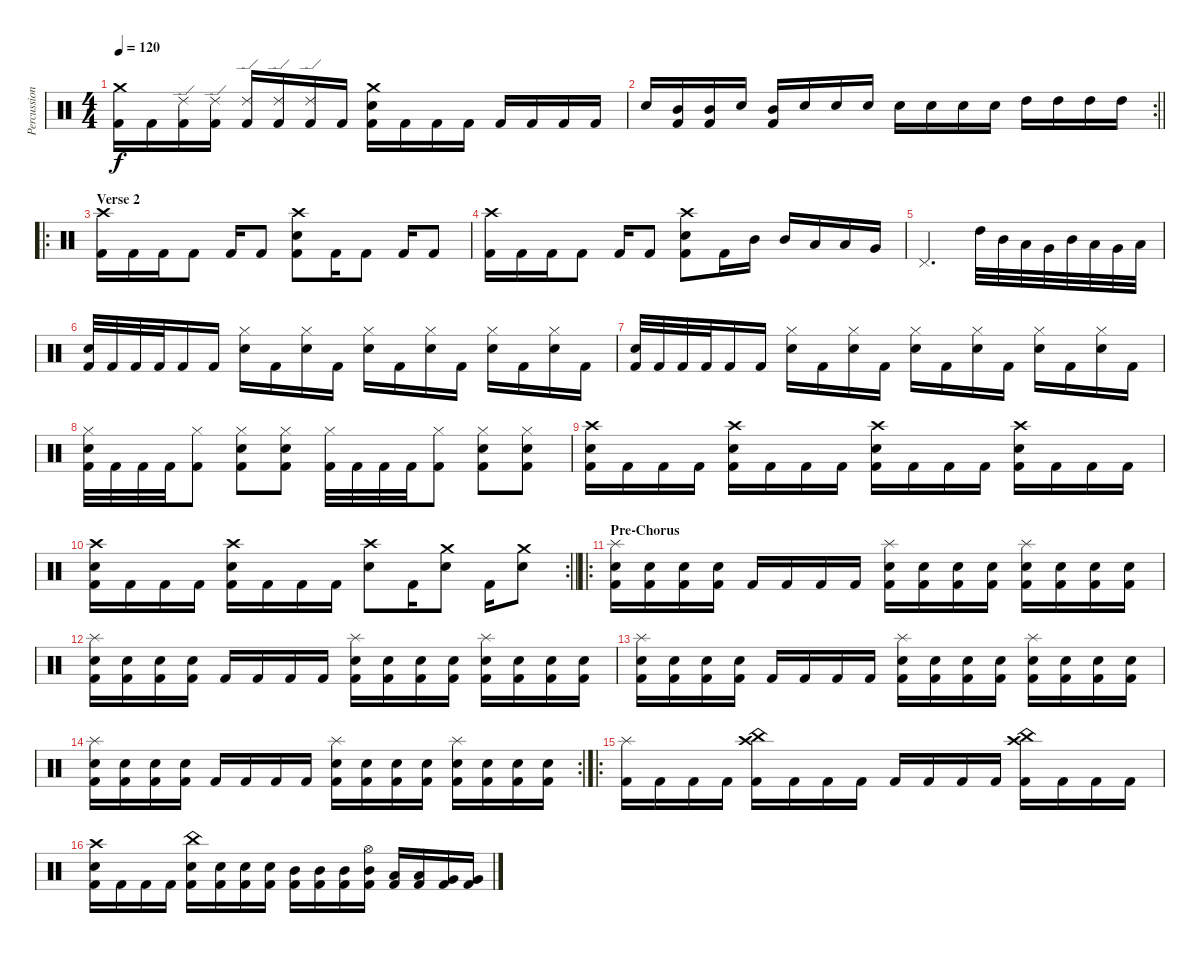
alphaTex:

\track ("Percussions" "Percussion") {instrument percussion}
\staff {score}
\articulation defaults
\ts (4 4)
\tempo 120
\clef neutral
\ks c
("Crash medium (hit)" "Kick (hit) 2").16{dy f} "Kick (hit) 2".16 ("Ride (edge) 2" "Kick (hit) 2").16 ("Ride (edge) 2" "Kick (hit) 2").16 ("Ride (edge) 2" "Kick (hit) 2").16 ("Ride (edge) 2" "Kick (hit) 2").16 ("Ride (edge) 2" "Kick (hit) 2").16 "Kick (hit) 2".16 ("Crash medium (hit)" "Electric Snare (hit)" "Kick (hit) 2").16 "Kick (hit) 2".16 "Kick (hit) 2".16 "Kick (hit) 2".16 "Kick (hit) 2".16 "Kick (hit) 2".16 "Kick (hit) 2".16 "Kick (hit) 2".16 |
\rc 2
\barLineRight lightlight "Electric Snare (hit)".16
("Mid Tom (hit)" "Kick (hit) 2").16 ("Mid Tom (hit)" "Kick (hit) 2").16 "Electric Snare (hit)".16 ("Mid Tom (hit)" "Kick (hit) 2").16 "Electric Snare (hit)".16 "Electric Snare (hit)".16 "Electric Snare (hit)".16 "Electric Snare (hit)".16 "Electric Snare (hit)".16 "Electric Snare (hit)".16 "Electric Snare (hit)".16 "High Tom (hit)".16 "High Tom (hit)".16 "High Tom (hit)".16 "High Tom (hit)".16 |
\ro
\section ("" "Verse 2")
("Crash high (hit)" "Kick (hit) 2").16 "Kick (hit) 2".16 "Kick (hit) 2".16 "Kick (hit) 2".8 "Kick (hit) 2".16 "Kick (hit) 2".8 ("Crash high (hit)" "Electric Snare (hit)" "Kick (hit) 2").8 "Kick (hit) 2".16 "Kick (hit) 2".8 "Kick (hit) 2".16 "Kick (hit) 2".8 |
("Crash high (hit)" "Kick (hit) 2").16 "Kick (hit) 2".16 "Kick (hit) 2".16 "Kick (hit) 2".8 "Kick (hit) 2".16 "Kick (hit) 2".8 ("Crash high (hit)" "Electric Snare (hit)" "Kick (hit) 2").8 "Kick (hit) 2".16 "Mid Tom (hit)".16 "Mid Tom (hit)".16 "Low Tom (hit)".16 "Low Tom (hit)".16 "Very Low Tom (hit)".16 |
"Pedal Hi-Hat (hit)".2{d} "High Tom (hit)".32 "Mid Tom (hit)".32 "Low Tom (hit)".32 "Very Low Tom (hit)".32 "Mid Tom (hit)".32 "Low Tom (hit)".32 "Very Low Tom (hit)".32 "Low Floor Tom (hit)".32 |
("Electric Snare (hit)" "Kick (hit) 2").32 "Kick (hit) 2".32 "Kick (hit) 2".32 "Kick (hit) 2".32 "Kick (hit) 2".16 "Kick (hit) 2".16 ("Hi-Hat (closed)" "Electric Snare (hit)").16 "Kick (hit) 2".16 ("Hi-Hat (closed)" "Electric Snare (hit)").16 "Kick (hit) 2".16 ("Hi-Hat (closed)" "Electric Snare (hit)").16 "Kick (hit) 2".16 ("Hi-Hat (closed)" "Electric Snare (hit)").16 "Kick (hit) 2".16 ("Hi-Hat (closed)" "Electric Snare (hit)").16 "Kick (hit) 2".16 ("Hi-Hat (closed)" "Electric Snare (hit)").16 "Kick (hit) 2".16 |
("Electric Snare (hit)" "Kick (hit) 2").32 "Kick (hit) 2".32 "Kick (hit) 2".32 "Kick (hit) 2".32 "Kick (hit) 2".16 "Kick (hit) 2".16 ("Hi-Hat (closed)" "Electric Snare (hit)").16 "Kick (hit) 2".16 ("Hi-Hat (closed)" "Electric Snare (hit)").16 "Kick (hit) 2".16 ("Hi-Hat (closed)" "Electric Snare (hit)").16 "Kick (hit) 2".16 ("Hi-Hat (closed)" "Electric Snare (hit)").16 "Kick (hit) 2".16 ("Hi-Hat (closed)" "Electric Snare (hit)").16 "Kick (hit) 2".16 ("Hi-Hat (closed)" "Electric Snare (hit)").16 "Kick (hit) 2".16 |
("Hi-Hat (closed)" "Electric Snare (hit)" "Kick (hit) 2").32 "Kick (hit) 2".32 "Kick (hit) 2".32 "Kick (hit) 2".32 ("Hi-Hat (closed)" "Kick (hit) 2").8 ("Hi-Hat (closed)" "Electric Snare (hit)" "Kick (hit) 2").8 ("Hi-Hat (closed)" "Electric Snare (hit)" "Kick (hit) 2").8 ("Hi-Hat (closed)" "Kick (hit) 2").32 "Kick (hit) 2".32 "Kick (hit) 2".32 "Kick (hit) 2".32 ("Hi-Hat (closed)" "Kick (hit) 2").8 ("Hi-Hat (closed)" "Electric Snare (hit)" "Kick (hit) 2").8 ("Hi-Hat (closed)" "Electric Snare (hit)" "Kick (hit) 2").8 |
("Crash high (hit)" "Electric Snare (hit)" "Kick (hit) 2").16 "Kick (hit) 2".16 "Kick (hit) 2".16 "Kick (hit) 2".16 ("Crash high (hit)" "Electric Snare (hit)" "Kick (hit) 2").16 "Kick (hit) 2".16 "Kick (hit) 2".16 "Kick (hit) 2".16 ("Crash high (hit)" "Electric Snare (hit)" "Kick (hit) 2").16 "Kick (hit) 2".16 "Kick (hit) 2".16 "Kick (hit) 2".16 ("Crash high (hit)" "Electric Snare (hit)" "Kick (hit) 2").16 "Kick (hit) 2".16 "Kick (hit) 2".16 "Kick (hit) 2".16 |
\rc 2
\barLineRight lightlight
("Crash high (hit)" "Electric Snare (hit)" "Kick (hit) 2").16 "Kick (hit) 2".16 "Kick (hit) 2".16 "Kick (hit) 2".16 ("Crash high (hit)" "Electric Snare (hit)" "Kick (hit) 2").16 "Kick (hit) 2".16 "Kick (hit) 2".16 "Kick (hit) 2".16 ("Crash high (hit)" "Electric Snare (hit)").8 "Kick (hit) 2".16 ("Crash medium (hit)" "Electric Snare (hit)").8 "Kick (hit) 2".16 ("Crash medium (hit)" "Electric Snare (hit)").8 |
\ro
\section ("" "Pre-Chorus")
("Splash (hit)" "Electric Snare (hit)" "Kick (hit) 2").16 ("Electric Snare (hit)" "Kick (hit) 2").16 ("Electric Snare (hit)" "Kick (hit) 2").16 ("Electric Snare (hit)" "Kick (hit) 2").16 "Kick (hit) 2".16 "Kick (hit) 2".16 "Kick (hit) 2".16 "Kick (hit) 2".16 ("Splash (hit)" "Electric Snare (hit)" "Kick (hit) 2").16 ("Electric Snare (hit)" "Kick (hit) 2").16 ("Electric Snare (hit)" "Kick (hit) 2").16 ("Electric Snare (hit)" "Kick (hit) 2").16 ("Splash (hit)" "Electric Snare (hit)" "Kick (hit) 2").16 ("Electric Snare (hit)" "Kick (hit) 2").16 ("Electric Snare (hit)" "Kick (hit) 2").16 ("Electric Snare (hit)" "Kick (hit) 2").16 |
("Splash (hit)" "Electric Snare (hit)" "Kick (hit) 2").16 ("Electric Snare (hit)" "Kick (hit) 2").16 ("Electric Snare (hit)" "Kick (hit) 2").16 ("Electric Snare (hit)" "Kick (hit) 2").16 "Kick (hit) 2".16 "Kick (hit) 2".16 "Kick (hit) 2".16 "Kick (hit) 2".16 ("Splash (hit)" "Electric Snare (hit)" "Kick (hit) 2").16 ("Electric Snare (hit)" "Kick (hit) 2").16 ("Electric Snare (hit)" "Kick (hit) 2").16 ("Electric Snare (hit)" "Kick (hit) 2").16 ("Splash (hit)" "Electric Snare (hit)" "Kick (hit) 2").16 ("Electric Snare (hit)" "Kick (hit) 2").16 ("Electric Snare (hit)" "Kick (hit) 2").16 ("Electric Snare (hit)" "Kick (hit) 2").16 |
("Splash (hit)" "Electric Snare (hit)" "Kick (hit) 2").16 ("Electric Snare (hit)" "Kick (hit) 2").16 ("Electric Snare (hit)" "Kick (hit) 2").16 ("Electric Snare (hit)" "Kick (hit) 2").16 "Kick (hit) 2".16 "Kick (hit) 2".16 "Kick (hit) 2".16 "Kick (hit) 2".16 ("Splash (hit)" "Electric Snare (hit)" "Kick (hit) 2").16 ("Electric Snare (hit)" "Kick (hit) 2").16 ("Electric Snare (hit)" "Kick (hit) 2").16 ("Electric Snare (hit)" "Kick (hit) 2").16 ("Splash (hit)" "Electric Snare (hit)" "Kick (hit) 2").16 ("Electric Snare (hit)" "Kick (hit) 2").16 ("Electric Snare (hit)" "Kick (hit) 2").16 ("Electric Snare (hit)" "Kick (hit) 2").16 |
\rc 2
("Splash (hit)" "Electric Snare (hit)" "Kick (hit) 2").16 ("Electric Snare (hit)" "Kick (hit) 2").16 ("Electric Snare (hit)" "Kick (hit) 2").16 ("Electric Snare (hit)" "Kick (hit) 2").16 "Kick (hit) 2".16 "Kick (hit) 2".16 "Kick (hit) 2".16 "Kick (hit) 2".16 ("Splash (hit)" "Electric Snare (hit)" "Kick (hit) 2").16 ("Electric Snare (hit)" "Kick (hit) 2").16 ("Electric Snare (hit)" "Kick (hit) 2").16 ("Electric Snare (hit)" "Kick (hit) 2").16 ("Splash (hit)" "Electric Snare (hit)" "Kick (hit) 2").16 ("Electric Snare (hit)" "Kick (hit) 2").16 ("Electric Snare (hit)" "Kick (hit) 2").16 ("Electric Snare (hit)" "Kick (hit) 2").16 |
\ro
("Splash (hit)" "Kick (hit) 2").16 "Kick (hit) 2".16 "Kick (hit) 2".16 "Kick (hit) 2".16 ("Crash high (hit)" "China (hit)" "Kick (hit) 2").16 "Kick (hit) 2".16 "Kick (hit) 2".16 "Kick (hit) 2".16 "Kick (hit) 2".16 "Kick (hit) 2".16 "Kick (hit) 2".16 "Kick (hit) 2".16 ("Crash high (hit)" "China (hit)" "Kick (hit) 2").16 "Kick (hit) 2".16 "Kick (hit) 2".16 "Kick (hit) 2".16 |
("Crash high (hit)" "Electric Snare (hit)" "Kick (hit) 2").16 "Kick (hit) 2".16 "Kick (hit) 2".16 "Kick (hit) 2".16 ("China (hit)" "Electric Snare (hit)" "Kick (hit) 2").16 ("Electric Snare (hit)" "Kick (hit) 2").16 ("Electric Snare (hit)" "Kick (hit) 2").16 ("Electric Snare (hit)" "Kick (hit) 2").16 ("Mid Tom (hit)" "Kick (hit) 2").16 ("Mid Tom (hit)" "Kick (hit) 2").16 ("Mid Tom (hit)" "Kick (hit) 2").16 ("Hi-Hat (open)" "Mid Tom (hit)" "Kick (hit) 2").16 ("Low Tom (hit)" "Kick (hit) 2").16 ("Low Tom (hit)" "Kick (hit) 2").16 ("Very Low Tom (hit)" "Kick (hit) 2").16 ("Very Low Tom (hit)" "Kick (hit) 2").16
